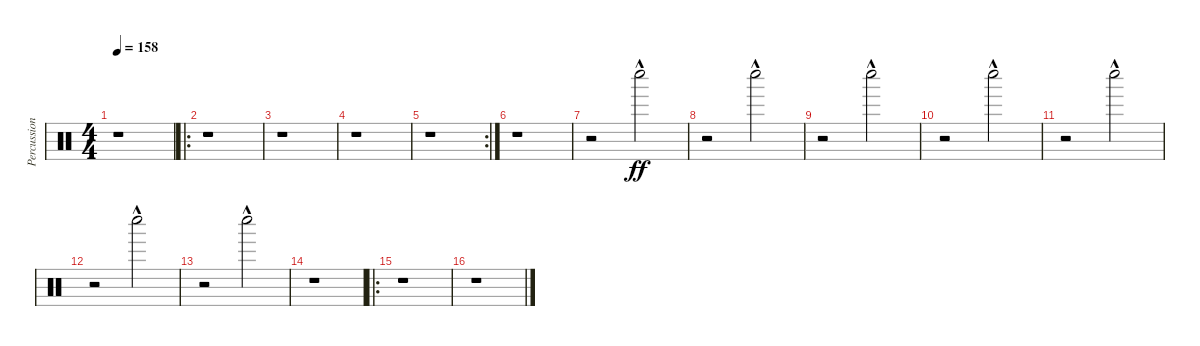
\track ("Percussion" "Percussion") {instrument percussion}
\staff {score}
\articulation defaults
\ts (4 4)
\tempo 158
\clef neutral
\ks c
r.1{dy ff} |
\ro
r.1 |
r.1 |
r.1 |
\rc 2
r.1 |
r.1 |
r.2 "Whistle low (hit)"{hac}.2 |
r.2 "Whistle low (hit)"{hac}.2 |
r.2 "Whistle low (hit)"{hac}.2 |
r.2 "Whistle low (hit)"{hac}.2 |
r.2 "Whistle low (hit)"{hac}.2 |
r.2 "Whistle low (hit)"{hac}.2 |
r.2 "Whistle low (hit)"{hac}.2 |
r.1 |
\ro
r.1 |
r.1
